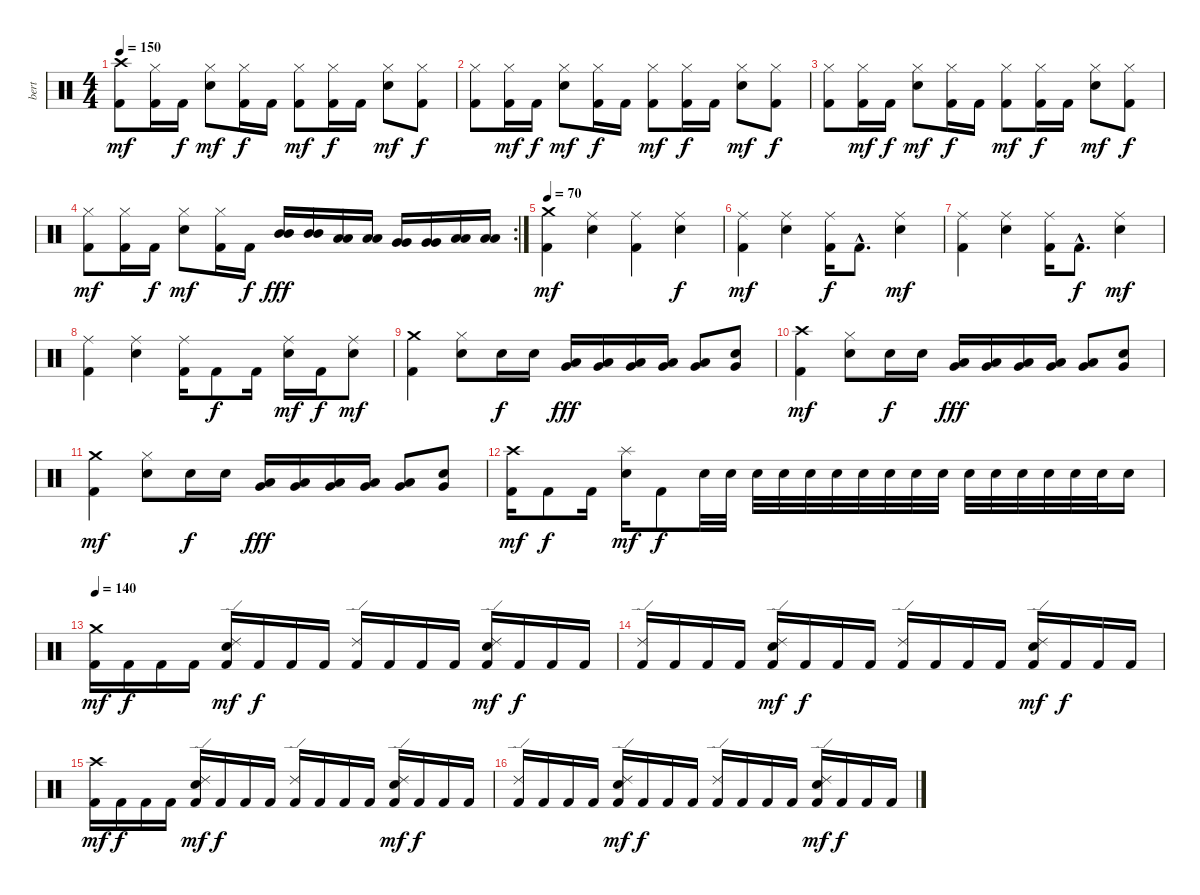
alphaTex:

\track ("bert" "bert") {instrument percussion}
\staff {score}
\articulation defaults
\ts (4 4)
\tempo 150
\clef neutral
\ks c
("Crash high (hit)" "Kick (hit) 2").8{dy mf} ("Hi-Hat (closed)" "Kick (hit) 2").16 "Kick (hit) 2".16{dy f} ("Hi-Hat (closed)" "Snare (hit) 2").8{dy mf} ("Hi-Hat (closed)" "Kick (hit) 2").16{dy f} "Kick (hit) 2".16 ("Hi-Hat (closed)" "Kick (hit) 2").8{dy mf} ("Hi-Hat (closed)" "Kick (hit) 2").16{dy f} "Kick (hit) 2".16 ("Hi-Hat (closed)" "Snare (hit) 2").8{dy mf} ("Hi-Hat (closed)" "Kick (hit) 2").8{dy f} |
("Hi-Hat (closed)" "Kick (hit) 2").8 ("Hi-Hat (closed)" "Kick (hit) 2").16{dy mf} "Kick (hit) 2".16{dy f} ("Hi-Hat (closed)" "Snare (hit) 2").8{dy mf} ("Hi-Hat (closed)" "Kick (hit) 2").16{dy f} "Kick (hit) 2".16 ("Hi-Hat (closed)" "Kick (hit) 2").8{dy mf} ("Hi-Hat (closed)" "Kick (hit) 2").16{dy f} "Kick (hit) 2".16 ("Hi-Hat (closed)" "Snare (hit) 2").8{dy mf} ("Hi-Hat (closed)" "Kick (hit) 2").8{dy f} |
("Hi-Hat (closed)" "Kick (hit) 2").8 ("Hi-Hat (closed)" "Kick (hit) 2").16{dy mf} "Kick (hit) 2".16{dy f} ("Hi-Hat (closed)" "Snare (hit) 2").8{dy mf} ("Hi-Hat (closed)" "Kick (hit) 2").16{dy f} "Kick (hit) 2".16 ("Hi-Hat (closed)" "Kick (hit) 2").8{dy mf} ("Hi-Hat (closed)" "Kick (hit) 2").16{dy f} "Kick (hit) 2".16 ("Hi-Hat (closed)" "Snare (hit) 2").8{dy mf} ("Hi-Hat (closed)" "Kick (hit) 2").8{dy f} |
\rc 2
("Hi-Hat (closed)" "Kick (hit) 2").8{dy mf} ("Hi-Hat (closed)" "Kick (hit) 2").16 "Kick (hit) 2".16{dy f} ("Hi-Hat (closed)" "Snare (hit) 2").8{dy mf} ("Hi-Hat (closed)" "Kick (hit) 2").16 "Kick (hit) 2".16{dy f} ("Mid Tom (hit)" "Mid Tom (hit)").16{dy fff} ("Mid Tom (hit)" "Mid Tom (hit)").16 ("Low Tom (hit)" "Low Tom (hit)").16 ("Low Tom (hit)" "Low Tom (hit)").16 ("Very Low Tom (hit)" "Very Low Tom (hit)").16 ("Very Low Tom (hit)" "Very Low Tom (hit)").16 ("Low Floor Tom (hit)" "Low Floor Tom (hit)").16 ("Low Floor Tom (hit)" "Low Floor Tom (hit)").16 |
\tempo 70
("Crash medium (hit)" "Kick (hit) 2").4{dy mf} ("Ride (middle)" "Snare (hit) 2").4 ("Ride (middle)" "Kick (hit) 2").4 ("Ride (middle)" "Snare (hit) 2").4{dy f} |
("Ride (middle)" "Kick (hit) 2").4{dy mf} ("Ride (middle)" "Snare (hit) 2").4 ("Ride (middle)" "Kick (hit) 2").16{dy f} "Kick (hit) 2"{hac}.8{d} ("Ride (middle)" "Snare (hit) 2").4{dy mf} |
("Ride (middle)" "Kick (hit) 2").4 ("Ride (middle)" "Snare (hit) 2").4 ("Ride (middle)" "Kick (hit) 2").16 "Kick (hit) 2"{hac}.8{d dy f} ("Ride (middle)" "Snare (hit) 2").4{dy mf} |
("Ride (middle)" "Kick (hit) 2").4 ("Ride (middle)" "Snare (hit) 2").4 ("Ride (middle)" "Kick (hit) 2").16 "Kick (hit) 2".8{dy f} "Kick (hit) 2".16 ("Ride (middle)" "Snare (hit) 2").16{dy mf} "Kick (hit) 2".16{dy f} ("Ride (middle)" "Snare (hit) 2").8{dy mf} |
("Crash medium (hit)" "Kick (hit) 2").4 ("Hi-Hat (closed)" "Snare (hit) 2").8 "Snare (hit) 2".16{dy f} "Snare (hit) 2".16 ("Low Tom (hit)" "Very Low Tom (hit)").16{dy fff} ("Low Tom (hit)" "Very Low Tom (hit)").16 ("Low Tom (hit)" "Very Low Tom (hit)").16 ("Low Tom (hit)" "Very Low Tom (hit)").16 ("Low Tom (hit)" "Very Low Tom (hit)").8 ("Snare (hit) 2" "Very Low Tom (hit)").8 |
("Crash high (hit)" "Kick (hit) 2").4{dy mf} ("Hi-Hat (closed)" "Snare (hit) 2").8 "Snare (hit) 2".16{dy f} "Snare (hit) 2".16 ("Low Tom (hit)" "Very Low Tom (hit)").16{dy fff} ("Low Tom (hit)" "Very Low Tom (hit)").16 ("Low Tom (hit)" "Very Low Tom (hit)").16 ("Low Tom (hit)" "Very Low Tom (hit)").16 ("Low Tom (hit)" "Very Low Tom (hit)").8 ("Snare (hit) 2" "Very Low Tom (hit)").8 |
("Crash medium (hit)" "Kick (hit) 2").4{dy mf} ("Hi-Hat (closed)" "Snare (hit) 2").8 "Snare (hit) 2".16{dy f} "Snare (hit) 2".16 ("Low Tom (hit)" "Very Low Tom (hit)").16{dy fff} ("Low Tom (hit)" "Very Low Tom (hit)").16 ("Low Tom (hit)" "Very Low Tom (hit)").16 ("Low Tom (hit)" "Very Low Tom (hit)").16 ("Low Tom (hit)" "Very Low Tom (hit)").8 ("Snare (hit) 2" "Very Low Tom (hit)").8 |
("Crash high (hit)" "Kick (hit) 2").16{dy mf} "Kick (hit) 2".8{dy f} "Kick (hit) 2".16 ("Splash (hit)" "Snare (hit) 2").16{dy mf} "Kick (hit) 2".8{dy f} "Snare (hit) 2".32 "Snare (hit) 2".32 "Snare (hit) 2".32 "Snare (hit) 2".32 "Snare (hit) 2".32 "Snare (hit) 2".32 "Snare (hit) 2".32 "Snare (hit) 2".32 "Snare (hit) 2".32 "Snare (hit) 2".32 "Snare (hit) 2".32 "Snare (hit) 2".32 "Snare (hit) 2".32 "Snare (hit) 2".32 "Snare (hit) 2".32 "Snare (hit) 2".32 "Snare (hit) 2".16 |
\tempo 140
("Crash medium (hit)" "Kick (hit) 2").16{dy mf} "Kick (hit) 2".16{dy f} "Kick (hit) 2".16 "Kick (hit) 2".16 ("Ride (edge) 2" "Snare (hit) 2" "Kick (hit) 2").16{dy mf} "Kick (hit) 2".16{dy f} "Kick (hit) 2".16 "Kick (hit) 2".16 ("Ride (edge) 2" "Kick (hit) 2").16 "Kick (hit) 2".16 "Kick (hit) 2".16 "Kick (hit) 2".16 ("Ride (edge) 2" "Snare (hit) 2" "Kick (hit) 2").16{dy mf} "Kick (hit) 2".16{dy f} "Kick (hit) 2".16 "Kick (hit) 2".16 |
("Ride (edge) 2" "Kick (hit) 2").16 "Kick (hit) 2".16 "Kick (hit) 2".16 "Kick (hit) 2".16 ("Ride (edge) 2" "Snare (hit) 2" "Kick (hit) 2").16{dy mf} "Kick (hit) 2".16{dy f} "Kick (hit) 2".16 "Kick (hit) 2".16 ("Ride (edge) 2" "Kick (hit) 2").16 "Kick (hit) 2".16 "Kick (hit) 2".16 "Kick (hit) 2".16 ("Ride (edge) 2" "Snare (hit) 2" "Kick (hit) 2").16{dy mf} "Kick (hit) 2".16{dy f} "Kick (hit) 2".16 "Kick (hit) 2".16 |
("Crash high (hit)" "Kick (hit) 2").16{dy mf} "Kick (hit) 2".16{dy f} "Kick (hit) 2".16 "Kick (hit) 2".16 ("Ride (edge) 2" "Snare (hit) 2" "Kick (hit) 2").16{dy mf} "Kick (hit) 2".16{dy f} "Kick (hit) 2".16 "Kick (hit) 2".16 ("Ride (edge) 2" "Kick (hit) 2").16 "Kick (hit) 2".16 "Kick (hit) 2".16 "Kick (hit) 2".16 ("Ride (edge) 2" "Snare (hit) 2" "Kick (hit) 2").16{dy mf} "Kick (hit) 2".16{dy f} "Kick (hit) 2".16 "Kick (hit) 2".16 |
("Ride (edge) 2" "Kick (hit) 2").16 "Kick (hit) 2".16 "Kick (hit) 2".16 "Kick (hit) 2".16 ("Ride (edge) 2" "Snare (hit) 2" "Kick (hit) 2").16{dy mf} "Kick (hit) 2".16{dy f} "Kick (hit) 2".16 "Kick (hit) 2".16 ("Ride (edge) 2" "Kick (hit) 2").16 "Kick (hit) 2".16 "Kick (hit) 2".16 "Kick (hit) 2".16 ("Ride (edge) 2" "Snare (hit) 2" "Kick (hit) 2").16{dy mf} "Kick (hit) 2".16{dy f} "Kick (hit) 2".16 "Kick (hit) 2".16
